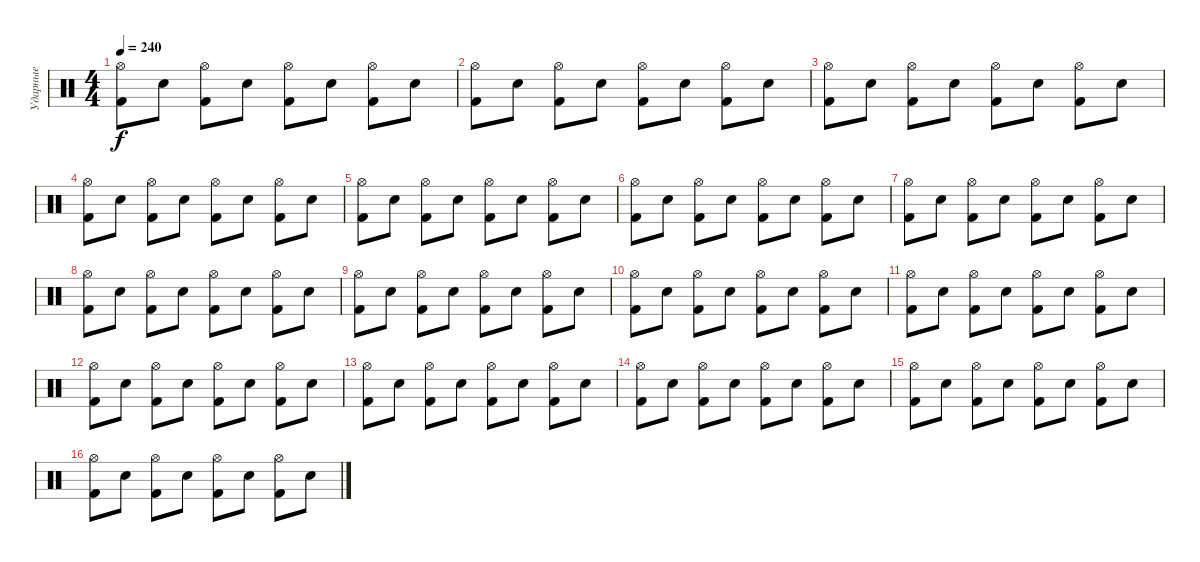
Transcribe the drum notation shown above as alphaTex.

\track ("Ударные" "Ударные") {instrument percussion}
\staff {score}
\articulation defaults
\ts (4 4)
\tempo 240
\clef neutral
\ks c
("Kick (hit) 2" "Hi-Hat (open)").8{dy f} "Electric Snare (hit)".8 ("Kick (hit) 2" "Hi-Hat (open)").8 "Electric Snare (hit)".8 ("Kick (hit) 2" "Hi-Hat (open)").8 "Electric Snare (hit)".8 ("Kick (hit) 2" "Hi-Hat (open)").8 "Electric Snare (hit)".8 |
("Kick (hit) 2" "Hi-Hat (open)").8 "Electric Snare (hit)".8 ("Kick (hit) 2" "Hi-Hat (open)").8 "Electric Snare (hit)".8 ("Kick (hit) 2" "Hi-Hat (open)").8 "Electric Snare (hit)".8 ("Kick (hit) 2" "Hi-Hat (open)").8 "Electric Snare (hit)".8 |
("Kick (hit) 2" "Hi-Hat (open)").8 "Electric Snare (hit)".8 ("Kick (hit) 2" "Hi-Hat (open)").8 "Electric Snare (hit)".8 ("Kick (hit) 2" "Hi-Hat (open)").8 "Electric Snare (hit)".8 ("Kick (hit) 2" "Hi-Hat (open)").8 "Electric Snare (hit)".8 |
("Kick (hit) 2" "Hi-Hat (open)").8 "Electric Snare (hit)".8 ("Kick (hit) 2" "Hi-Hat (open)").8 "Electric Snare (hit)".8 ("Kick (hit) 2" "Hi-Hat (open)").8 "Electric Snare (hit)".8 ("Kick (hit) 2" "Hi-Hat (open)").8 "Electric Snare (hit)".8 |
("Kick (hit) 2" "Hi-Hat (open)").8 "Electric Snare (hit)".8 ("Kick (hit) 2" "Hi-Hat (open)").8 "Electric Snare (hit)".8 ("Kick (hit) 2" "Hi-Hat (open)").8 "Electric Snare (hit)".8 ("Kick (hit) 2" "Hi-Hat (open)").8 "Electric Snare (hit)".8 |
("Kick (hit) 2" "Hi-Hat (open)").8 "Electric Snare (hit)".8 ("Kick (hit) 2" "Hi-Hat (open)").8 "Electric Snare (hit)".8 ("Kick (hit) 2" "Hi-Hat (open)").8 "Electric Snare (hit)".8 ("Kick (hit) 2" "Hi-Hat (open)").8 "Electric Snare (hit)".8 |
("Kick (hit) 2" "Hi-Hat (open)").8 "Electric Snare (hit)".8 ("Kick (hit) 2" "Hi-Hat (open)").8 "Electric Snare (hit)".8 ("Kick (hit) 2" "Hi-Hat (open)").8 "Electric Snare (hit)".8 ("Kick (hit) 2" "Hi-Hat (open)").8 "Electric Snare (hit)".8 |
("Kick (hit) 2" "Hi-Hat (open)").8 "Electric Snare (hit)".8 ("Kick (hit) 2" "Hi-Hat (open)").8 "Electric Snare (hit)".8 ("Kick (hit) 2" "Hi-Hat (open)").8 "Electric Snare (hit)".8 ("Kick (hit) 2" "Hi-Hat (open)").8 "Electric Snare (hit)".8 |
("Kick (hit) 2" "Hi-Hat (open)").8 "Electric Snare (hit)".8 ("Kick (hit) 2" "Hi-Hat (open)").8 "Electric Snare (hit)".8 ("Kick (hit) 2" "Hi-Hat (open)").8 "Electric Snare (hit)".8 ("Kick (hit) 2" "Hi-Hat (open)").8 "Electric Snare (hit)".8 |
("Kick (hit) 2" "Hi-Hat (open)").8 "Electric Snare (hit)".8 ("Kick (hit) 2" "Hi-Hat (open)").8 "Electric Snare (hit)".8 ("Kick (hit) 2" "Hi-Hat (open)").8 "Electric Snare (hit)".8 ("Kick (hit) 2" "Hi-Hat (open)").8 "Electric Snare (hit)".8 |
("Kick (hit) 2" "Hi-Hat (open)").8 "Electric Snare (hit)".8 ("Kick (hit) 2" "Hi-Hat (open)").8 "Electric Snare (hit)".8 ("Kick (hit) 2" "Hi-Hat (open)").8 "Electric Snare (hit)".8 ("Kick (hit) 2" "Hi-Hat (open)").8 "Electric Snare (hit)".8 |
("Kick (hit) 2" "Hi-Hat (open)").8 "Electric Snare (hit)".8 ("Kick (hit) 2" "Hi-Hat (open)").8 "Electric Snare (hit)".8 ("Kick (hit) 2" "Hi-Hat (open)").8 "Electric Snare (hit)".8 ("Kick (hit) 2" "Hi-Hat (open)").8 "Electric Snare (hit)".8 |
("Kick (hit) 2" "Hi-Hat (open)").8 "Electric Snare (hit)".8 ("Kick (hit) 2" "Hi-Hat (open)").8 "Electric Snare (hit)".8 ("Kick (hit) 2" "Hi-Hat (open)").8 "Electric Snare (hit)".8 ("Kick (hit) 2" "Hi-Hat (open)").8 "Electric Snare (hit)".8 |
("Kick (hit) 2" "Hi-Hat (open)").8 "Electric Snare (hit)".8 ("Kick (hit) 2" "Hi-Hat (open)").8 "Electric Snare (hit)".8 ("Kick (hit) 2" "Hi-Hat (open)").8 "Electric Snare (hit)".8 ("Kick (hit) 2" "Hi-Hat (open)").8 "Electric Snare (hit)".8 |
("Kick (hit) 2" "Hi-Hat (open)").8 "Electric Snare (hit)".8 ("Kick (hit) 2" "Hi-Hat (open)").8 "Electric Snare (hit)".8 ("Kick (hit) 2" "Hi-Hat (open)").8 "Electric Snare (hit)".8 ("Kick (hit) 2" "Hi-Hat (open)").8 "Electric Snare (hit)".8 |
("Kick (hit) 2" "Hi-Hat (open)").8 "Electric Snare (hit)".8 ("Kick (hit) 2" "Hi-Hat (open)").8 "Electric Snare (hit)".8 ("Kick (hit) 2" "Hi-Hat (open)").8 "Electric Snare (hit)".8 ("Kick (hit) 2" "Hi-Hat (open)").8 "Electric Snare (hit)".8
